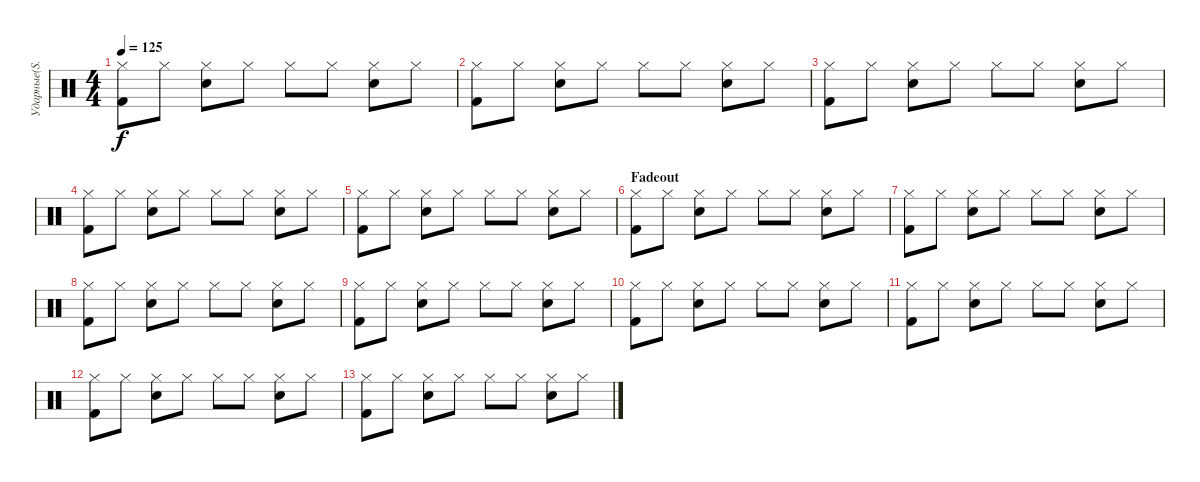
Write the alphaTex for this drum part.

\track ("Ударные(S. Travis)" "Ударные(S.") {instrument percussion}
\staff {score}
\articulation defaults
\ts (4 4)
\tempo 125
\clef neutral
\ks c
("Hi-Hat (closed)" "Kick (hit) 2").8{dy f} "Hi-Hat (closed)".8 ("Hi-Hat (closed)" "Snare (hit) 2").8 "Hi-Hat (closed)".8 "Hi-Hat (closed)".8 "Hi-Hat (closed)".8 ("Hi-Hat (closed)" "Snare (hit) 2").8 "Hi-Hat (closed)".8 |
("Hi-Hat (closed)" "Kick (hit) 2").8 "Hi-Hat (closed)".8 ("Hi-Hat (closed)" "Snare (hit) 2").8 "Hi-Hat (closed)".8 "Hi-Hat (closed)".8 "Hi-Hat (closed)".8 ("Hi-Hat (closed)" "Snare (hit) 2").8 "Hi-Hat (closed)".8 |
("Hi-Hat (closed)" "Kick (hit) 2").8 "Hi-Hat (closed)".8 ("Hi-Hat (closed)" "Snare (hit) 2").8 "Hi-Hat (closed)".8 "Hi-Hat (closed)".8 "Hi-Hat (closed)".8 ("Hi-Hat (closed)" "Snare (hit) 2").8 "Hi-Hat (closed)".8 |
("Hi-Hat (closed)" "Kick (hit) 2").8 "Hi-Hat (closed)".8 ("Hi-Hat (closed)" "Snare (hit) 2").8 "Hi-Hat (closed)".8 "Hi-Hat (closed)".8 "Hi-Hat (closed)".8 ("Hi-Hat (closed)" "Snare (hit) 2").8 "Hi-Hat (closed)".8 |
("Hi-Hat (closed)" "Kick (hit) 2").8 "Hi-Hat (closed)".8 ("Hi-Hat (closed)" "Snare (hit) 2").8 "Hi-Hat (closed)".8 "Hi-Hat (closed)".8 "Hi-Hat (closed)".8 ("Hi-Hat (closed)" "Snare (hit) 2").8 "Hi-Hat (closed)".8 |
\section ("" "Fadeout")
("Hi-Hat (closed)" "Kick (hit) 2").8 "Hi-Hat (closed)".8 ("Hi-Hat (closed)" "Snare (hit) 2").8 "Hi-Hat (closed)".8 "Hi-Hat (closed)".8 "Hi-Hat (closed)".8 ("Hi-Hat (closed)" "Snare (hit) 2").8 "Hi-Hat (closed)".8 |
("Hi-Hat (closed)" "Kick (hit) 2").8 "Hi-Hat (closed)".8 ("Hi-Hat (closed)" "Snare (hit) 2").8 "Hi-Hat (closed)".8 "Hi-Hat (closed)".8 "Hi-Hat (closed)".8 ("Hi-Hat (closed)" "Snare (hit) 2").8 "Hi-Hat (closed)".8 |
("Hi-Hat (closed)" "Kick (hit) 2").8 "Hi-Hat (closed)".8 ("Hi-Hat (closed)" "Snare (hit) 2").8 "Hi-Hat (closed)".8 "Hi-Hat (closed)".8 "Hi-Hat (closed)".8 ("Hi-Hat (closed)" "Snare (hit) 2").8 "Hi-Hat (closed)".8 |
("Hi-Hat (closed)" "Kick (hit) 2").8 "Hi-Hat (closed)".8 ("Hi-Hat (closed)" "Snare (hit) 2").8 "Hi-Hat (closed)".8 "Hi-Hat (closed)".8 "Hi-Hat (closed)".8 ("Hi-Hat (closed)" "Snare (hit) 2").8 "Hi-Hat (closed)".8 |
("Hi-Hat (closed)" "Kick (hit) 2").8 "Hi-Hat (closed)".8 ("Hi-Hat (closed)" "Snare (hit) 2").8 "Hi-Hat (closed)".8 "Hi-Hat (closed)".8 "Hi-Hat (closed)".8 ("Hi-Hat (closed)" "Snare (hit) 2").8 "Hi-Hat (closed)".8 |
("Hi-Hat (closed)" "Kick (hit) 2").8 "Hi-Hat (closed)".8 ("Hi-Hat (closed)" "Snare (hit) 2").8 "Hi-Hat (closed)".8 "Hi-Hat (closed)".8 "Hi-Hat (closed)".8 ("Hi-Hat (closed)" "Snare (hit) 2").8 "Hi-Hat (closed)".8 |
("Hi-Hat (closed)" "Kick (hit) 2").8 "Hi-Hat (closed)".8 ("Hi-Hat (closed)" "Snare (hit) 2").8 "Hi-Hat (closed)".8 "Hi-Hat (closed)".8 "Hi-Hat (closed)".8 ("Hi-Hat (closed)" "Snare (hit) 2").8 "Hi-Hat (closed)".8 |
("Hi-Hat (closed)" "Kick (hit) 2").8 "Hi-Hat (closed)".8 ("Hi-Hat (closed)" "Snare (hit) 2").8 "Hi-Hat (closed)".8 "Hi-Hat (closed)".8 "Hi-Hat (closed)".8 ("Hi-Hat (closed)" "Snare (hit) 2").8 "Hi-Hat (closed)".8
